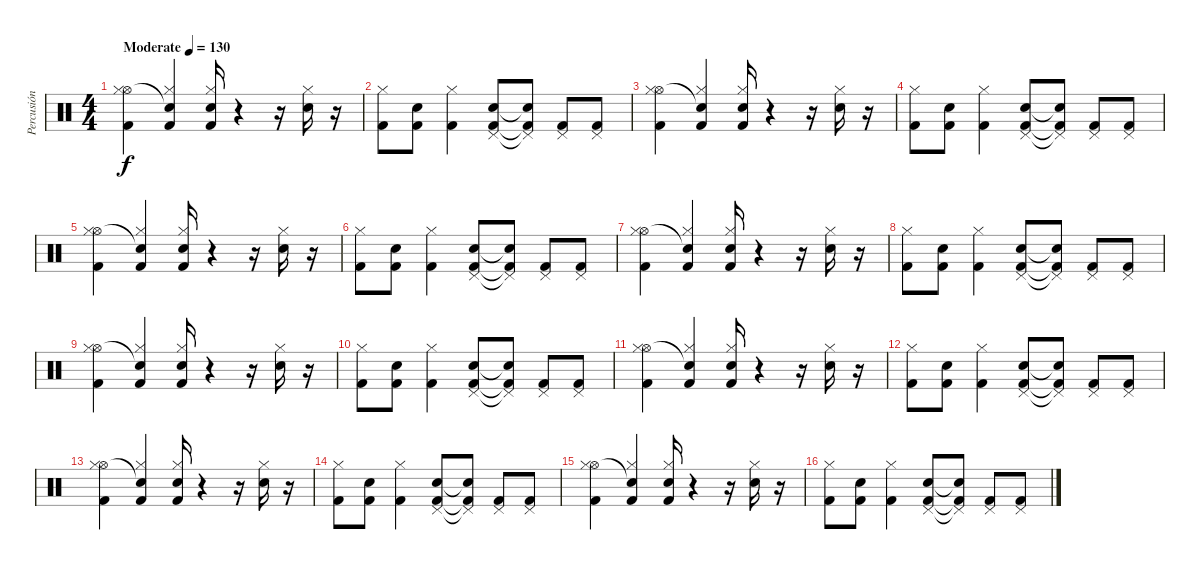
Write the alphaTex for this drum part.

\track ("Percusión" "Percusión") {instrument percussion}
\staff {score}
\articulation defaults
\ts (4 4)
\tempo (130 "Moderate")
\clef neutral
\ks c
("Kick (hit) 2" "Hi-Hat (open)" "Hi-Hat (closed)").4{dy f} ("Kick (hit) 2" "Snare (hit)"{t} "Hi-Hat (closed)").4 ("Electric Snare (hit)" "Kick (hit) 2" "Hi-Hat (closed)").16 r.4 r.16 ("Electric Snare (hit)" "Hi-Hat (closed)").16 r.16 |
("Kick (hit) 2" "Hi-Hat (closed)").8 ("Kick (hit) 2" "Electric Snare (hit)").8 ("Kick (hit) 2" "Hi-Hat (closed)").4 ("Electric Snare (hit)" "Kick (hit) 2" "Pedal Hi-Hat (hit)").8 ("Snare (hit)"{t} "Kick (hit) 2"{t} "Pedal Hi-Hat (hit)"{t}).8 ("Kick (hit) 2" "Pedal Hi-Hat (hit)").8 ("Kick (hit) 2" "Pedal Hi-Hat (hit)").8 |
("Kick (hit) 2" "Hi-Hat (open)" "Hi-Hat (closed)").4 ("Kick (hit) 2" "Snare (hit)"{t} "Hi-Hat (closed)").4 ("Electric Snare (hit)" "Kick (hit) 2" "Hi-Hat (closed)").16 r.4 r.16 ("Electric Snare (hit)" "Hi-Hat (closed)").16 r.16 |
("Kick (hit) 2" "Hi-Hat (closed)").8 ("Kick (hit) 2" "Electric Snare (hit)").8 ("Kick (hit) 2" "Hi-Hat (closed)").4 ("Electric Snare (hit)" "Kick (hit) 2" "Pedal Hi-Hat (hit)").8 ("Snare (hit)"{t} "Kick (hit) 2"{t} "Pedal Hi-Hat (hit)"{t}).8 ("Kick (hit) 2" "Pedal Hi-Hat (hit)").8 ("Kick (hit) 2" "Pedal Hi-Hat (hit)").8 |
("Kick (hit) 2" "Hi-Hat (open)" "Hi-Hat (closed)").4 ("Kick (hit) 2" "Snare (hit)"{t} "Hi-Hat (closed)").4 ("Electric Snare (hit)" "Kick (hit) 2" "Hi-Hat (closed)").16 r.4 r.16 ("Electric Snare (hit)" "Hi-Hat (closed)").16 r.16 |
("Kick (hit) 2" "Hi-Hat (closed)").8 ("Kick (hit) 2" "Electric Snare (hit)").8 ("Kick (hit) 2" "Hi-Hat (closed)").4 ("Electric Snare (hit)" "Kick (hit) 2" "Pedal Hi-Hat (hit)").8 ("Snare (hit)"{t} "Kick (hit) 2"{t} "Pedal Hi-Hat (hit)"{t}).8 ("Kick (hit) 2" "Pedal Hi-Hat (hit)").8 ("Kick (hit) 2" "Pedal Hi-Hat (hit)").8 |
("Kick (hit) 2" "Hi-Hat (open)" "Hi-Hat (closed)").4 ("Kick (hit) 2" "Snare (hit)"{t} "Hi-Hat (closed)").4 ("Electric Snare (hit)" "Kick (hit) 2" "Hi-Hat (closed)").16 r.4 r.16 ("Electric Snare (hit)" "Hi-Hat (closed)").16 r.16 |
("Kick (hit) 2" "Hi-Hat (closed)").8 ("Kick (hit) 2" "Electric Snare (hit)").8 ("Kick (hit) 2" "Hi-Hat (closed)").4 ("Electric Snare (hit)" "Kick (hit) 2" "Pedal Hi-Hat (hit)").8 ("Snare (hit)"{t} "Kick (hit) 2"{t} "Pedal Hi-Hat (hit)"{t}).8 ("Kick (hit) 2" "Pedal Hi-Hat (hit)").8 ("Kick (hit) 2" "Pedal Hi-Hat (hit)").8 |
("Kick (hit) 2" "Hi-Hat (open)" "Hi-Hat (closed)").4 ("Kick (hit) 2" "Snare (hit)"{t} "Hi-Hat (closed)").4 ("Electric Snare (hit)" "Kick (hit) 2" "Hi-Hat (closed)").16 r.4 r.16 ("Electric Snare (hit)" "Hi-Hat (closed)").16 r.16 |
("Kick (hit) 2" "Hi-Hat (closed)").8 ("Kick (hit) 2" "Electric Snare (hit)").8 ("Kick (hit) 2" "Hi-Hat (closed)").4 ("Electric Snare (hit)" "Kick (hit) 2" "Pedal Hi-Hat (hit)").8 ("Snare (hit)"{t} "Kick (hit) 2"{t} "Pedal Hi-Hat (hit)"{t}).8 ("Kick (hit) 2" "Pedal Hi-Hat (hit)").8 ("Kick (hit) 2" "Pedal Hi-Hat (hit)").8 |
("Kick (hit) 2" "Hi-Hat (open)" "Hi-Hat (closed)").4 ("Kick (hit) 2" "Snare (hit)"{t} "Hi-Hat (closed)").4 ("Electric Snare (hit)" "Kick (hit) 2" "Hi-Hat (closed)").16 r.4 r.16 ("Electric Snare (hit)" "Hi-Hat (closed)").16 r.16 |
("Kick (hit) 2" "Hi-Hat (closed)").8 ("Kick (hit) 2" "Electric Snare (hit)").8 ("Kick (hit) 2" "Hi-Hat (closed)").4 ("Electric Snare (hit)" "Kick (hit) 2" "Pedal Hi-Hat (hit)").8 ("Snare (hit)"{t} "Kick (hit) 2"{t} "Pedal Hi-Hat (hit)"{t}).8 ("Kick (hit) 2" "Pedal Hi-Hat (hit)").8 ("Kick (hit) 2" "Pedal Hi-Hat (hit)").8 |
("Kick (hit) 2" "Hi-Hat (open)" "Hi-Hat (closed)").4 ("Kick (hit) 2" "Snare (hit)"{t} "Hi-Hat (closed)").4 ("Electric Snare (hit)" "Kick (hit) 2" "Hi-Hat (closed)").16 r.4 r.16 ("Electric Snare (hit)" "Hi-Hat (closed)").16 r.16 |
("Kick (hit) 2" "Hi-Hat (closed)").8 ("Kick (hit) 2" "Electric Snare (hit)").8 ("Kick (hit) 2" "Hi-Hat (closed)").4 ("Electric Snare (hit)" "Kick (hit) 2" "Pedal Hi-Hat (hit)").8 ("Snare (hit)"{t} "Kick (hit) 2"{t} "Pedal Hi-Hat (hit)"{t}).8 ("Kick (hit) 2" "Pedal Hi-Hat (hit)").8 ("Kick (hit) 2" "Pedal Hi-Hat (hit)").8 |
("Kick (hit) 2" "Hi-Hat (open)" "Hi-Hat (closed)").4 ("Kick (hit) 2" "Snare (hit)"{t} "Hi-Hat (closed)").4 ("Electric Snare (hit)" "Kick (hit) 2" "Hi-Hat (closed)").16 r.4 r.16 ("Electric Snare (hit)" "Hi-Hat (closed)").16 r.16 |
("Kick (hit) 2" "Hi-Hat (closed)").8 ("Kick (hit) 2" "Electric Snare (hit)").8 ("Kick (hit) 2" "Hi-Hat (closed)").4 ("Electric Snare (hit)" "Kick (hit) 2" "Pedal Hi-Hat (hit)").8 ("Snare (hit)"{t} "Kick (hit) 2"{t} "Pedal Hi-Hat (hit)"{t}).8 ("Kick (hit) 2" "Pedal Hi-Hat (hit)").8 ("Kick (hit) 2" "Pedal Hi-Hat (hit)").8
